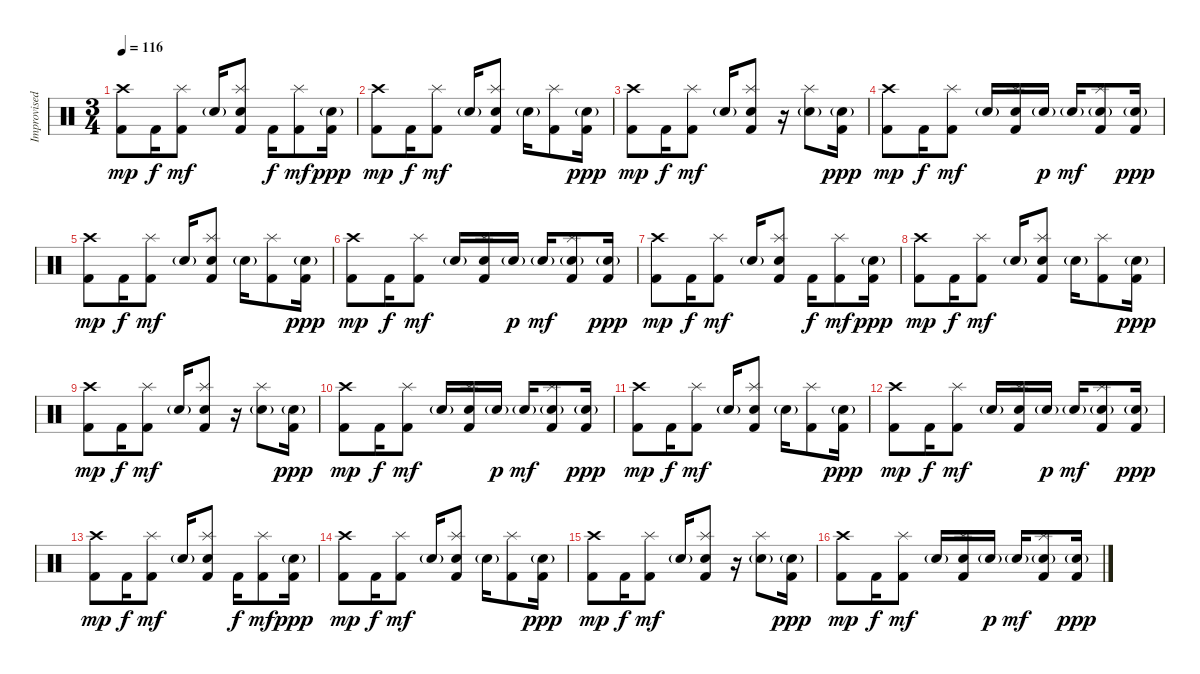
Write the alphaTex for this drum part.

\track ("Improvised Drums" "Improvised") {instrument percussion}
\staff {score}
\articulation defaults
\ts (3 4)
\tempo 116
\clef neutral
\ks c
("Kick (hit) 2" "Crash high (hit)").8{dy mp} "Kick (hit) 2".16{dy f} ("Kick (hit) 2" "Splash (hit)").8{dy mf} "Snare (hit) 2"{g}.16 ("Kick (hit) 2" "Snare (hit) 2" "Splash (hit)").8 "Kick (hit) 2".16{dy f} ("Kick (hit) 2" "Splash (hit)").8{dy mf} ("Kick (hit) 2" "Electric Snare (hit)"{g}).16{dy ppp} |
("Kick (hit) 2" "Crash high (hit)").8{dy mp} "Kick (hit) 2".16{dy f} ("Kick (hit) 2" "Splash (hit)").8{dy mf} "Snare (hit) 2"{g}.16 ("Kick (hit) 2" "Snare (hit) 2" "Splash (hit)").8 "Snare (hit) 2"{g}.16 ("Kick (hit) 2" "Splash (hit)").8 ("Kick (hit) 2" "Electric Snare (hit)"{g}).16{dy ppp} |
("Kick (hit) 2" "Crash high (hit)").8{dy mp} "Kick (hit) 2".16{dy f} ("Kick (hit) 2" "Splash (hit)").8{dy mf} "Snare (hit) 2"{g}.16 ("Kick (hit) 2" "Snare (hit) 2" "Splash (hit)").8 r.16 ("Snare (hit) 2"{g} "Splash (hit)").8 ("Kick (hit) 2" "Electric Snare (hit)"{g}).16{dy ppp} |
("Kick (hit) 2" "Crash high (hit)").8{dy mp} "Kick (hit) 2".16{dy f} ("Kick (hit) 2" "Splash (hit)").8{dy mf} "Snare (hit) 2"{g}.16 ("Kick (hit) 2" "Snare (hit) 2" "Splash (hit)").16 "Snare (hit) 2"{g}.16{dy p} "Snare (hit) 2"{g}.16{dy mf} ("Kick (hit) 2" "Snare (hit) 2"{g} "Splash (hit)").8 ("Kick (hit) 2" "Electric Snare (hit)"{g}).16{dy ppp} |
("Kick (hit) 2" "Crash high (hit)").8{dy mp} "Kick (hit) 2".16{dy f} ("Kick (hit) 2" "Splash (hit)").8{dy mf} "Snare (hit) 2"{g}.16 ("Kick (hit) 2" "Snare (hit) 2" "Splash (hit)").8 "Snare (hit) 2"{g}.16 ("Kick (hit) 2" "Splash (hit)").8 ("Kick (hit) 2" "Electric Snare (hit)"{g}).16{dy ppp} |
("Kick (hit) 2" "Crash high (hit)").8{dy mp} "Kick (hit) 2".16{dy f} ("Kick (hit) 2" "Splash (hit)").8{dy mf} "Snare (hit) 2"{g}.16 ("Kick (hit) 2" "Snare (hit) 2" "Splash (hit)").16 "Snare (hit) 2"{g}.16{dy p} "Snare (hit) 2"{g}.16{dy mf} ("Kick (hit) 2" "Snare (hit) 2"{g} "Splash (hit)").8 ("Kick (hit) 2" "Electric Snare (hit)"{g}).16{dy ppp} |
("Kick (hit) 2" "Crash high (hit)").8{dy mp} "Kick (hit) 2".16{dy f} ("Kick (hit) 2" "Splash (hit)").8{dy mf} "Snare (hit) 2"{g}.16 ("Kick (hit) 2" "Snare (hit) 2" "Splash (hit)").8 "Kick (hit) 2".16{dy f} ("Kick (hit) 2" "Splash (hit)").8{dy mf} ("Kick (hit) 2" "Electric Snare (hit)"{g}).16{dy ppp} |
("Kick (hit) 2" "Crash high (hit)").8{dy mp} "Kick (hit) 2".16{dy f} ("Kick (hit) 2" "Splash (hit)").8{dy mf} "Snare (hit) 2"{g}.16 ("Kick (hit) 2" "Snare (hit) 2" "Splash (hit)").8 "Snare (hit) 2"{g}.16 ("Kick (hit) 2" "Splash (hit)").8 ("Kick (hit) 2" "Electric Snare (hit)"{g}).16{dy ppp} |
("Kick (hit) 2" "Crash high (hit)").8{dy mp} "Kick (hit) 2".16{dy f} ("Kick (hit) 2" "Splash (hit)").8{dy mf} "Snare (hit) 2"{g}.16 ("Kick (hit) 2" "Snare (hit) 2" "Splash (hit)").8 r.16 ("Snare (hit) 2"{g} "Splash (hit)").8 ("Kick (hit) 2" "Electric Snare (hit)"{g}).16{dy ppp} |
("Kick (hit) 2" "Crash high (hit)").8{dy mp} "Kick (hit) 2".16{dy f} ("Kick (hit) 2" "Splash (hit)").8{dy mf} "Snare (hit) 2"{g}.16 ("Kick (hit) 2" "Snare (hit) 2" "Splash (hit)").16 "Snare (hit) 2"{g}.16{dy p} "Snare (hit) 2"{g}.16{dy mf} ("Kick (hit) 2" "Snare (hit) 2"{g} "Splash (hit)").8 ("Kick (hit) 2" "Electric Snare (hit)"{g}).16{dy ppp} |
("Kick (hit) 2" "Crash high (hit)").8{dy mp} "Kick (hit) 2".16{dy f} ("Kick (hit) 2" "Splash (hit)").8{dy mf} "Snare (hit) 2"{g}.16 ("Kick (hit) 2" "Snare (hit) 2" "Splash (hit)").8 "Snare (hit) 2"{g}.16 ("Kick (hit) 2" "Splash (hit)").8 ("Kick (hit) 2" "Electric Snare (hit)"{g}).16{dy ppp} |
("Kick (hit) 2" "Crash high (hit)").8{dy mp} "Kick (hit) 2".16{dy f} ("Kick (hit) 2" "Splash (hit)").8{dy mf} "Snare (hit) 2"{g}.16 ("Kick (hit) 2" "Snare (hit) 2" "Splash (hit)").16 "Snare (hit) 2"{g}.16{dy p} "Snare (hit) 2"{g}.16{dy mf} ("Kick (hit) 2" "Snare (hit) 2"{g} "Splash (hit)").8 ("Kick (hit) 2" "Electric Snare (hit)"{g}).16{dy ppp} |
("Kick (hit) 2" "Crash high (hit)").8{dy mp} "Kick (hit) 2".16{dy f} ("Kick (hit) 2" "Splash (hit)").8{dy mf} "Snare (hit) 2"{g}.16 ("Kick (hit) 2" "Snare (hit) 2" "Splash (hit)").8 "Kick (hit) 2".16{dy f} ("Kick (hit) 2" "Splash (hit)").8{dy mf} ("Kick (hit) 2" "Electric Snare (hit)"{g}).16{dy ppp} |
("Kick (hit) 2" "Crash high (hit)").8{dy mp} "Kick (hit) 2".16{dy f} ("Kick (hit) 2" "Splash (hit)").8{dy mf} "Snare (hit) 2"{g}.16 ("Kick (hit) 2" "Snare (hit) 2" "Splash (hit)").8 "Snare (hit) 2"{g}.16 ("Kick (hit) 2" "Splash (hit)").8 ("Kick (hit) 2" "Electric Snare (hit)"{g}).16{dy ppp} |
("Kick (hit) 2" "Crash high (hit)").8{dy mp} "Kick (hit) 2".16{dy f} ("Kick (hit) 2" "Splash (hit)").8{dy mf} "Snare (hit) 2"{g}.16 ("Kick (hit) 2" "Snare (hit) 2" "Splash (hit)").8 r.16 ("Snare (hit) 2"{g} "Splash (hit)").8 ("Kick (hit) 2" "Electric Snare (hit)"{g}).16{dy ppp} |
("Kick (hit) 2" "Crash high (hit)").8{dy mp} "Kick (hit) 2".16{dy f} ("Kick (hit) 2" "Splash (hit)").8{dy mf} "Snare (hit) 2"{g}.16 ("Kick (hit) 2" "Snare (hit) 2" "Splash (hit)").16 "Snare (hit) 2"{g}.16{dy p} "Snare (hit) 2"{g}.16{dy mf} ("Kick (hit) 2" "Snare (hit) 2"{g} "Splash (hit)").8 ("Kick (hit) 2" "Electric Snare (hit)"{g}).16{dy ppp}
